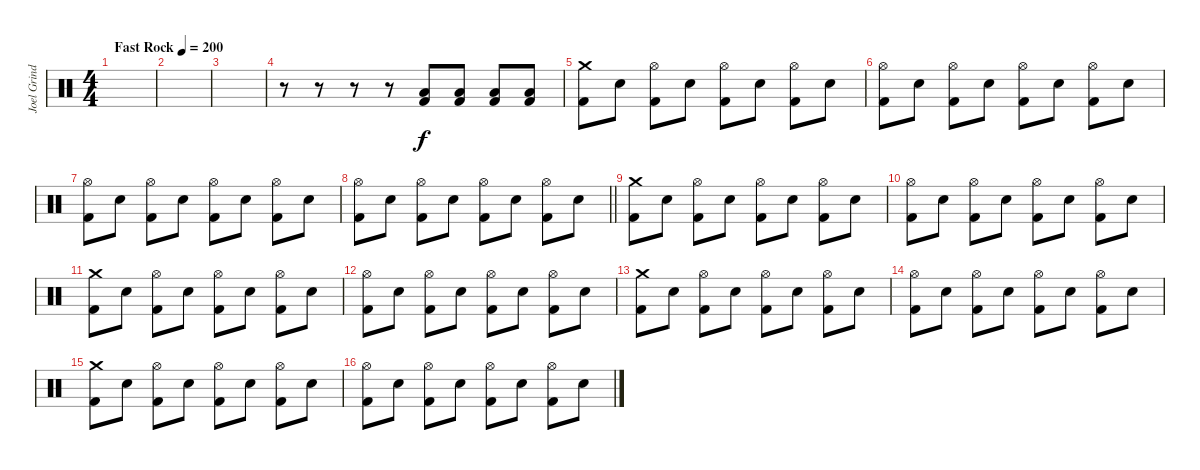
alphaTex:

\track ("Joel Grind (drums)" "Joel Grind") {instrument percussion}
\staff {score}
\articulation defaults
\ts (4 4)
\tempo (200 "Fast Rock")
\clef neutral
\ks c
|
|
|
r.8 r.8 r.8 r.8 ("Low Floor Tom (hit)" "Kick (hit) 2").8 ("Low Floor Tom (hit)" "Kick (hit) 2").8 ("Low Floor Tom (hit)" "Kick (hit) 2").8 ("Low Floor Tom (hit)" "Kick (hit) 2").8 |
("Crash medium (hit)" "Kick (hit) 2").8 "Snare (hit) 2".8 ("Hi-Hat (open)" "Kick (hit) 2").8 "Snare (hit) 2".8 ("Hi-Hat (open)" "Kick (hit) 2").8 "Snare (hit) 2".8 ("Hi-Hat (open)" "Kick (hit) 2").8 "Snare (hit) 2".8 |
("Hi-Hat (open)" "Kick (hit) 2").8 "Snare (hit) 2".8 ("Hi-Hat (open)" "Kick (hit) 2").8 "Snare (hit) 2".8 ("Hi-Hat (open)" "Kick (hit) 2").8 "Snare (hit) 2".8 ("Hi-Hat (open)" "Kick (hit) 2").8 "Snare (hit) 2".8 |
("Hi-Hat (open)" "Kick (hit) 2").8 "Snare (hit) 2".8 ("Hi-Hat (open)" "Kick (hit) 2").8 "Snare (hit) 2".8 ("Hi-Hat (open)" "Kick (hit) 2").8 "Snare (hit) 2".8 ("Hi-Hat (open)" "Kick (hit) 2").8 "Snare (hit) 2".8 |
\barLineRight lightlight
("Hi-Hat (open)" "Kick (hit) 2").8 "Snare (hit) 2".8 ("Hi-Hat (open)" "Kick (hit) 2").8 "Snare (hit) 2".8 ("Hi-Hat (open)" "Kick (hit) 2").8 "Snare (hit) 2".8 ("Hi-Hat (open)" "Kick (hit) 2").8 "Snare (hit) 2".8 |
("Crash medium (hit)" "Kick (hit) 2").8 "Snare (hit) 2".8 ("Hi-Hat (open)" "Kick (hit) 2").8 "Snare (hit) 2".8 ("Hi-Hat (open)" "Kick (hit) 2").8 "Snare (hit) 2".8 ("Hi-Hat (open)" "Kick (hit) 2").8 "Snare (hit) 2".8 |
("Hi-Hat (open)" "Kick (hit) 2").8 "Snare (hit) 2".8 ("Hi-Hat (open)" "Kick (hit) 2").8 "Snare (hit) 2".8 ("Hi-Hat (open)" "Kick (hit) 2").8 "Snare (hit) 2".8 ("Hi-Hat (open)" "Kick (hit) 2").8 "Snare (hit) 2".8 |
("Crash medium (hit)" "Kick (hit) 2").8 "Snare (hit) 2".8 ("Hi-Hat (open)" "Kick (hit) 2").8 "Snare (hit) 2".8 ("Hi-Hat (open)" "Kick (hit) 2").8 "Snare (hit) 2".8 ("Hi-Hat (open)" "Kick (hit) 2").8 "Snare (hit) 2".8 |
("Hi-Hat (open)" "Kick (hit) 2").8 "Snare (hit) 2".8 ("Hi-Hat (open)" "Kick (hit) 2").8 "Snare (hit) 2".8 ("Hi-Hat (open)" "Kick (hit) 2").8 "Snare (hit) 2".8 ("Hi-Hat (open)" "Kick (hit) 2").8 "Snare (hit) 2".8 |
("Crash medium (hit)" "Kick (hit) 2").8 "Snare (hit) 2".8 ("Hi-Hat (open)" "Kick (hit) 2").8 "Snare (hit) 2".8 ("Hi-Hat (open)" "Kick (hit) 2").8 "Snare (hit) 2".8 ("Hi-Hat (open)" "Kick (hit) 2").8 "Snare (hit) 2".8 |
("Hi-Hat (open)" "Kick (hit) 2").8 "Snare (hit) 2".8 ("Hi-Hat (open)" "Kick (hit) 2").8 "Snare (hit) 2".8 ("Hi-Hat (open)" "Kick (hit) 2").8 "Snare (hit) 2".8 ("Hi-Hat (open)" "Kick (hit) 2").8 "Snare (hit) 2".8 |
("Crash medium (hit)" "Kick (hit) 2").8 "Snare (hit) 2".8 ("Hi-Hat (open)" "Kick (hit) 2").8 "Snare (hit) 2".8 ("Hi-Hat (open)" "Kick (hit) 2").8 "Snare (hit) 2".8 ("Hi-Hat (open)" "Kick (hit) 2").8 "Snare (hit) 2".8 |
("Hi-Hat (open)" "Kick (hit) 2").8 "Snare (hit) 2".8 ("Hi-Hat (open)" "Kick (hit) 2").8 "Snare (hit) 2".8 ("Hi-Hat (open)" "Kick (hit) 2").8 "Snare (hit) 2".8 ("Hi-Hat (open)" "Kick (hit) 2").8 "Snare (hit) 2".8
